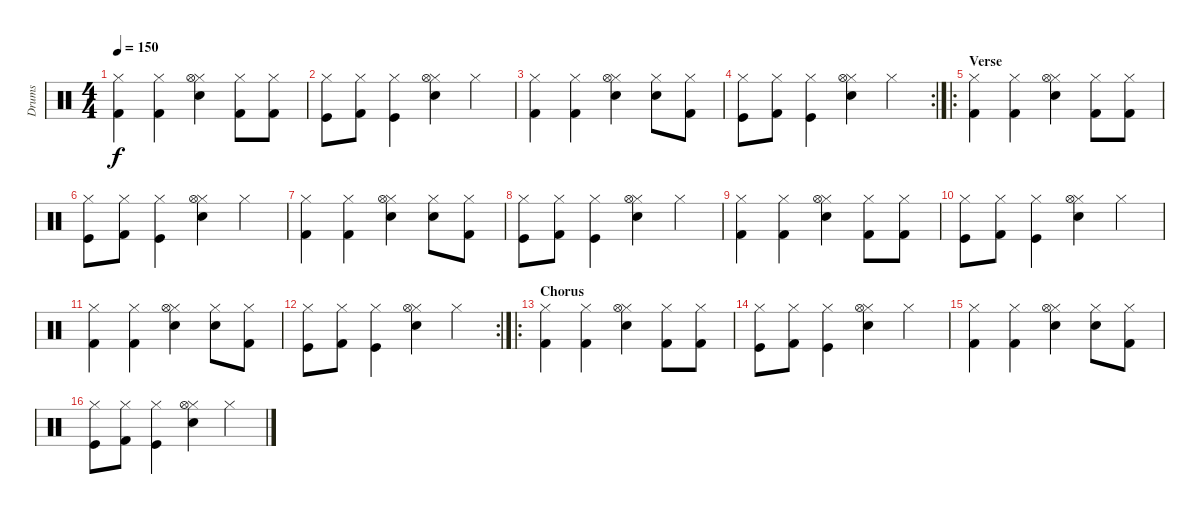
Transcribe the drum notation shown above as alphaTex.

\track ("Drums" "Drums") {instrument percussion}
\staff {score}
\articulation defaults
\ts (4 4)
\tempo 150
\clef neutral
\ks c
("Kick (hit) 2" "Hi-Hat (closed)").4{dy f} ("Kick (hit) 2" "Hi-Hat (closed)").4 ("Snare (hit) 2" "Hi-Hat (closed)" "Hi-Hat (open)").4 ("Kick (hit) 2" "Hi-Hat (closed)").8 ("Kick (hit) 2" "Hi-Hat (closed)").8 |
("Kick (hit)" "Hi-Hat (closed)").8 ("Kick (hit) 2" "Hi-Hat (closed)").8 ("Kick (hit)" "Hi-Hat (closed)").4 ("Snare (hit) 2" "Hi-Hat (closed)" "Hi-Hat (open)").4 "Hi-Hat (closed)".4 |
("Kick (hit) 2" "Hi-Hat (closed)").4 ("Kick (hit) 2" "Hi-Hat (closed)").4 ("Snare (hit) 2" "Hi-Hat (closed)" "Hi-Hat (open)").4 ("Snare (hit) 2" "Hi-Hat (closed)").8 ("Kick (hit) 2" "Hi-Hat (closed)").8 |
\rc 2
("Kick (hit)" "Hi-Hat (closed)").8 ("Kick (hit) 2" "Hi-Hat (closed)").8 ("Kick (hit)" "Hi-Hat (closed)").4 ("Snare (hit) 2" "Hi-Hat (closed)" "Hi-Hat (open)").4 "Hi-Hat (closed)".4 |
\ro
\section ("" "Verse")
("Kick (hit) 2" "Hi-Hat (closed)").4 ("Kick (hit) 2" "Hi-Hat (closed)").4 ("Snare (hit) 2" "Hi-Hat (closed)" "Hi-Hat (open)").4 ("Kick (hit) 2" "Hi-Hat (closed)").8 ("Kick (hit) 2" "Hi-Hat (closed)").8 |
("Kick (hit)" "Hi-Hat (closed)").8 ("Kick (hit) 2" "Hi-Hat (closed)").8 ("Kick (hit)" "Hi-Hat (closed)").4 ("Snare (hit) 2" "Hi-Hat (closed)" "Hi-Hat (open)").4 "Hi-Hat (closed)".4 |
("Kick (hit) 2" "Hi-Hat (closed)").4 ("Kick (hit) 2" "Hi-Hat (closed)").4 ("Snare (hit) 2" "Hi-Hat (closed)" "Hi-Hat (open)").4 ("Snare (hit) 2" "Hi-Hat (closed)").8 ("Kick (hit) 2" "Hi-Hat (closed)").8 |
("Kick (hit)" "Hi-Hat (closed)").8 ("Kick (hit) 2" "Hi-Hat (closed)").8 ("Kick (hit)" "Hi-Hat (closed)").4 ("Snare (hit) 2" "Hi-Hat (closed)" "Hi-Hat (open)").4 "Hi-Hat (closed)".4 |
("Kick (hit) 2" "Hi-Hat (closed)").4 ("Kick (hit) 2" "Hi-Hat (closed)").4 ("Snare (hit) 2" "Hi-Hat (closed)" "Hi-Hat (open)").4 ("Kick (hit) 2" "Hi-Hat (closed)").8 ("Kick (hit) 2" "Hi-Hat (closed)").8 |
("Kick (hit)" "Hi-Hat (closed)").8 ("Kick (hit) 2" "Hi-Hat (closed)").8 ("Kick (hit)" "Hi-Hat (closed)").4 ("Snare (hit) 2" "Hi-Hat (closed)" "Hi-Hat (open)").4 "Hi-Hat (closed)".4 |
("Kick (hit) 2" "Hi-Hat (closed)").4 ("Kick (hit) 2" "Hi-Hat (closed)").4 ("Snare (hit) 2" "Hi-Hat (closed)" "Hi-Hat (open)").4 ("Snare (hit) 2" "Hi-Hat (closed)").8 ("Kick (hit) 2" "Hi-Hat (closed)").8 |
\rc 2
("Kick (hit)" "Hi-Hat (closed)").8 ("Kick (hit) 2" "Hi-Hat (closed)").8 ("Kick (hit)" "Hi-Hat (closed)").4 ("Snare (hit) 2" "Hi-Hat (closed)" "Hi-Hat (open)").4 "Hi-Hat (closed)".4 |
\ro
\section ("" "Chorus")
("Kick (hit) 2" "Hi-Hat (closed)").4 ("Kick (hit) 2" "Hi-Hat (closed)").4 ("Snare (hit) 2" "Hi-Hat (closed)" "Hi-Hat (open)").4 ("Kick (hit) 2" "Hi-Hat (closed)").8 ("Kick (hit) 2" "Hi-Hat (closed)").8 |
("Kick (hit)" "Hi-Hat (closed)").8 ("Kick (hit) 2" "Hi-Hat (closed)").8 ("Kick (hit)" "Hi-Hat (closed)").4 ("Snare (hit) 2" "Hi-Hat (closed)" "Hi-Hat (open)").4 "Hi-Hat (closed)".4 |
("Kick (hit) 2" "Hi-Hat (closed)").4 ("Kick (hit) 2" "Hi-Hat (closed)").4 ("Snare (hit) 2" "Hi-Hat (closed)" "Hi-Hat (open)").4 ("Snare (hit) 2" "Hi-Hat (closed)").8 ("Kick (hit) 2" "Hi-Hat (closed)").8 |
("Kick (hit)" "Hi-Hat (closed)").8 ("Kick (hit) 2" "Hi-Hat (closed)").8 ("Kick (hit)" "Hi-Hat (closed)").4 ("Snare (hit) 2" "Hi-Hat (closed)" "Hi-Hat (open)").4 "Hi-Hat (closed)".4
